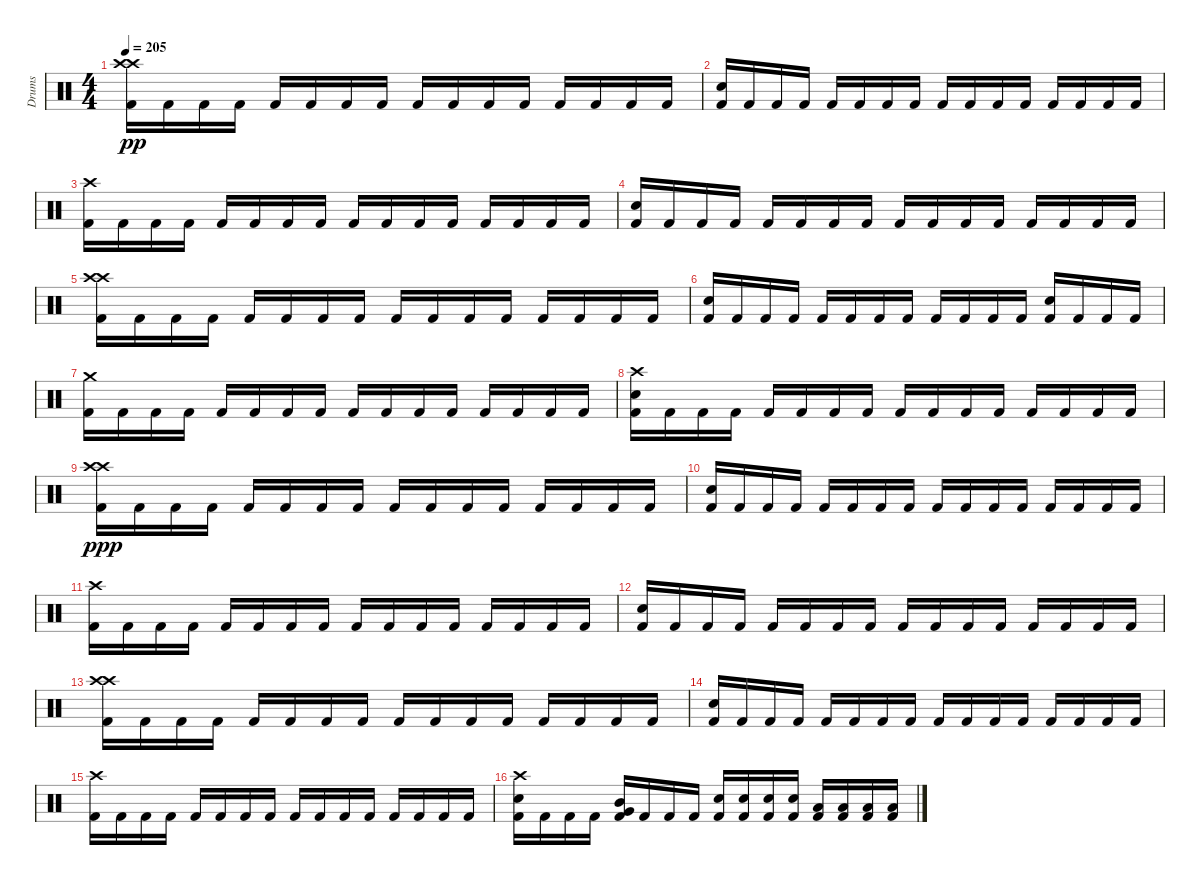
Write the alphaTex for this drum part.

\track ("Drums" "Drums") {instrument percussion}
\staff {score}
\articulation defaults
\ts (4 4)
\tempo 205
\clef neutral
\ks c
("Crash high (hit)" "Crash high (hit)" "Kick (hit) 2").16{dy pp} "Kick (hit) 2".16 "Kick (hit) 2".16 "Kick (hit) 2".16 "Kick (hit) 2".16 "Kick (hit) 2".16 "Kick (hit) 2".16 "Kick (hit) 2".16 "Kick (hit) 2".16 "Kick (hit) 2".16 "Kick (hit) 2".16 "Kick (hit) 2".16 "Kick (hit) 2".16 "Kick (hit) 2".16 "Kick (hit) 2".16 "Kick (hit) 2".16 |
("Kick (hit) 2" "Snare (hit) 2").16 "Kick (hit) 2".16 "Kick (hit) 2".16 "Kick (hit) 2".16 "Kick (hit) 2".16 "Kick (hit) 2".16 "Kick (hit) 2".16 "Kick (hit) 2".16 "Kick (hit) 2".16 "Kick (hit) 2".16 "Kick (hit) 2".16 "Kick (hit) 2".16 "Kick (hit) 2".16 "Kick (hit) 2".16 "Kick (hit) 2".16 "Kick (hit) 2".16 |
("Kick (hit) 2" "Crash high (hit)").16 "Kick (hit) 2".16 "Kick (hit) 2".16 "Kick (hit) 2".16 "Kick (hit) 2".16 "Kick (hit) 2".16 "Kick (hit) 2".16 "Kick (hit) 2".16 "Kick (hit) 2".16 "Kick (hit) 2".16 "Kick (hit) 2".16 "Kick (hit) 2".16 "Kick (hit) 2".16 "Kick (hit) 2".16 "Kick (hit) 2".16 "Kick (hit) 2".16 |
("Kick (hit) 2" "Snare (hit) 2").16 "Kick (hit) 2".16 "Kick (hit) 2".16 "Kick (hit) 2".16 "Kick (hit) 2".16 "Kick (hit) 2".16 "Kick (hit) 2".16 "Kick (hit) 2".16 "Kick (hit) 2".16 "Kick (hit) 2".16 "Kick (hit) 2".16 "Kick (hit) 2".16 "Kick (hit) 2".16 "Kick (hit) 2".16 "Kick (hit) 2".16 "Kick (hit) 2".16 |
("Crash high (hit)" "Crash high (hit)" "Kick (hit) 2").16 "Kick (hit) 2".16 "Kick (hit) 2".16 "Kick (hit) 2".16 "Kick (hit) 2".16 "Kick (hit) 2".16 "Kick (hit) 2".16 "Kick (hit) 2".16 "Kick (hit) 2".16 "Kick (hit) 2".16 "Kick (hit) 2".16 "Kick (hit) 2".16 "Kick (hit) 2".16 "Kick (hit) 2".16 "Kick (hit) 2".16 "Kick (hit) 2".16 |
("Kick (hit) 2" "Snare (hit) 2").16 "Kick (hit) 2".16 "Kick (hit) 2".16 "Kick (hit) 2".16 "Kick (hit) 2".16 "Kick (hit) 2".16 "Kick (hit) 2".16 "Kick (hit) 2".16 "Kick (hit) 2".16 "Kick (hit) 2".16 "Kick (hit) 2".16 "Kick (hit) 2".16 ("Kick (hit) 2" "Snare (hit) 2").16 "Kick (hit) 2".16 "Kick (hit) 2".16 "Kick (hit) 2".16 |
("Crash medium (hit)" "Kick (hit) 2").16 "Kick (hit) 2".16 "Kick (hit) 2".16 "Kick (hit) 2".16 "Kick (hit) 2".16 "Kick (hit) 2".16 "Kick (hit) 2".16 "Kick (hit) 2".16 "Kick (hit) 2".16 "Kick (hit) 2".16 "Kick (hit) 2".16 "Kick (hit) 2".16 "Kick (hit) 2".16 "Kick (hit) 2".16 "Kick (hit) 2".16 "Kick (hit) 2".16 |
("Crash high (hit)" "Kick (hit) 2" "Snare (hit) 2").16 "Kick (hit) 2".16 "Kick (hit) 2".16 "Kick (hit) 2".16 "Kick (hit) 2".16 "Kick (hit) 2".16 "Kick (hit) 2".16 "Kick (hit) 2".16 "Kick (hit) 2".16 "Kick (hit) 2".16 "Kick (hit) 2".16 "Kick (hit) 2".16 "Kick (hit) 2".16 "Kick (hit) 2".16 "Kick (hit) 2".16 "Kick (hit) 2".16 |
("Crash high (hit)" "Crash high (hit)" "Kick (hit) 2").16{dy ppp} "Kick (hit) 2".16 "Kick (hit) 2".16 "Kick (hit) 2".16 "Kick (hit) 2".16 "Kick (hit) 2".16 "Kick (hit) 2".16 "Kick (hit) 2".16 "Kick (hit) 2".16 "Kick (hit) 2".16 "Kick (hit) 2".16 "Kick (hit) 2".16 "Kick (hit) 2".16 "Kick (hit) 2".16 "Kick (hit) 2".16 "Kick (hit) 2".16 |
("Kick (hit) 2" "Snare (hit) 2").16 "Kick (hit) 2".16 "Kick (hit) 2".16 "Kick (hit) 2".16 "Kick (hit) 2".16 "Kick (hit) 2".16 "Kick (hit) 2".16 "Kick (hit) 2".16 "Kick (hit) 2".16 "Kick (hit) 2".16 "Kick (hit) 2".16 "Kick (hit) 2".16 "Kick (hit) 2".16 "Kick (hit) 2".16 "Kick (hit) 2".16 "Kick (hit) 2".16 |
("Kick (hit) 2" "Crash high (hit)").16 "Kick (hit) 2".16 "Kick (hit) 2".16 "Kick (hit) 2".16 "Kick (hit) 2".16 "Kick (hit) 2".16 "Kick (hit) 2".16 "Kick (hit) 2".16 "Kick (hit) 2".16 "Kick (hit) 2".16 "Kick (hit) 2".16 "Kick (hit) 2".16 "Kick (hit) 2".16 "Kick (hit) 2".16 "Kick (hit) 2".16 "Kick (hit) 2".16 |
("Kick (hit) 2" "Snare (hit) 2").16 "Kick (hit) 2".16 "Kick (hit) 2".16 "Kick (hit) 2".16 "Kick (hit) 2".16 "Kick (hit) 2".16 "Kick (hit) 2".16 "Kick (hit) 2".16 "Kick (hit) 2".16 "Kick (hit) 2".16 "Kick (hit) 2".16 "Kick (hit) 2".16 "Kick (hit) 2".16 "Kick (hit) 2".16 "Kick (hit) 2".16 "Kick (hit) 2".16 |
("Crash high (hit)" "Crash high (hit)" "Kick (hit) 2").16 "Kick (hit) 2".16 "Kick (hit) 2".16 "Kick (hit) 2".16 "Kick (hit) 2".16 "Kick (hit) 2".16 "Kick (hit) 2".16 "Kick (hit) 2".16 "Kick (hit) 2".16 "Kick (hit) 2".16 "Kick (hit) 2".16 "Kick (hit) 2".16 "Kick (hit) 2".16 "Kick (hit) 2".16 "Kick (hit) 2".16 "Kick (hit) 2".16 |
("Kick (hit) 2" "Snare (hit) 2").16 "Kick (hit) 2".16 "Kick (hit) 2".16 "Kick (hit) 2".16 "Kick (hit) 2".16 "Kick (hit) 2".16 "Kick (hit) 2".16 "Kick (hit) 2".16 "Kick (hit) 2".16 "Kick (hit) 2".16 "Kick (hit) 2".16 "Kick (hit) 2".16 "Kick (hit) 2".16 "Kick (hit) 2".16 "Kick (hit) 2".16 "Kick (hit) 2".16 |
("Kick (hit) 2" "Crash high (hit)").16 "Kick (hit) 2".16 "Kick (hit) 2".16 "Kick (hit) 2".16 "Kick (hit) 2".16 "Kick (hit) 2".16 "Kick (hit) 2".16 "Kick (hit) 2".16 "Kick (hit) 2".16 "Kick (hit) 2".16 "Kick (hit) 2".16 "Kick (hit) 2".16 "Kick (hit) 2".16 "Kick (hit) 2".16 "Kick (hit) 2".16 "Kick (hit) 2".16 |
("Crash high (hit)" "Kick (hit) 2" "Snare (hit) 2").16 "Kick (hit) 2".16 "Kick (hit) 2".16 "Kick (hit) 2".16 ("Kick (hit) 2" "Mid Tom (hit)" "Very Low Tom (hit)").16 "Kick (hit) 2".16 "Kick (hit) 2".16 "Kick (hit) 2".16 ("Kick (hit) 2" "Snare (hit) 2").16 ("Kick (hit) 2" "Snare (hit) 2").16 ("Kick (hit) 2" "Snare (hit) 2").16 ("Kick (hit) 2" "Snare (hit) 2").16 ("Kick (hit) 2" "Low Tom (hit)").16 ("Kick (hit) 2" "Low Tom (hit)").16 ("Kick (hit) 2" "Low Tom (hit)").16 ("Kick (hit) 2" "Low Tom (hit)").16
